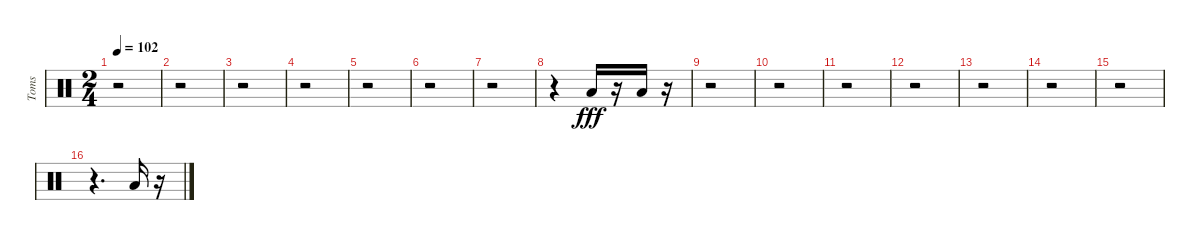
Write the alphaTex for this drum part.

\track ("Toms" "Toms") {instrument percussion}
\staff {score}
\articulation defaults
\ts (2 4)
\tempo 102
\clef neutral
\ks c
r.2{dy fff} |
r.2 |
r.2 |
r.2 |
r.2 |
r.2 |
r.2 |
r.4 "Low Floor Tom (hit)".16 r.16 "Low Floor Tom (hit)".16 r.16 |
r.2 |
r.2 |
r.2 |
r.2 |
r.2 |
r.2 |
r.2 |
r.4{d} "Low Floor Tom (hit)".16 r.16
